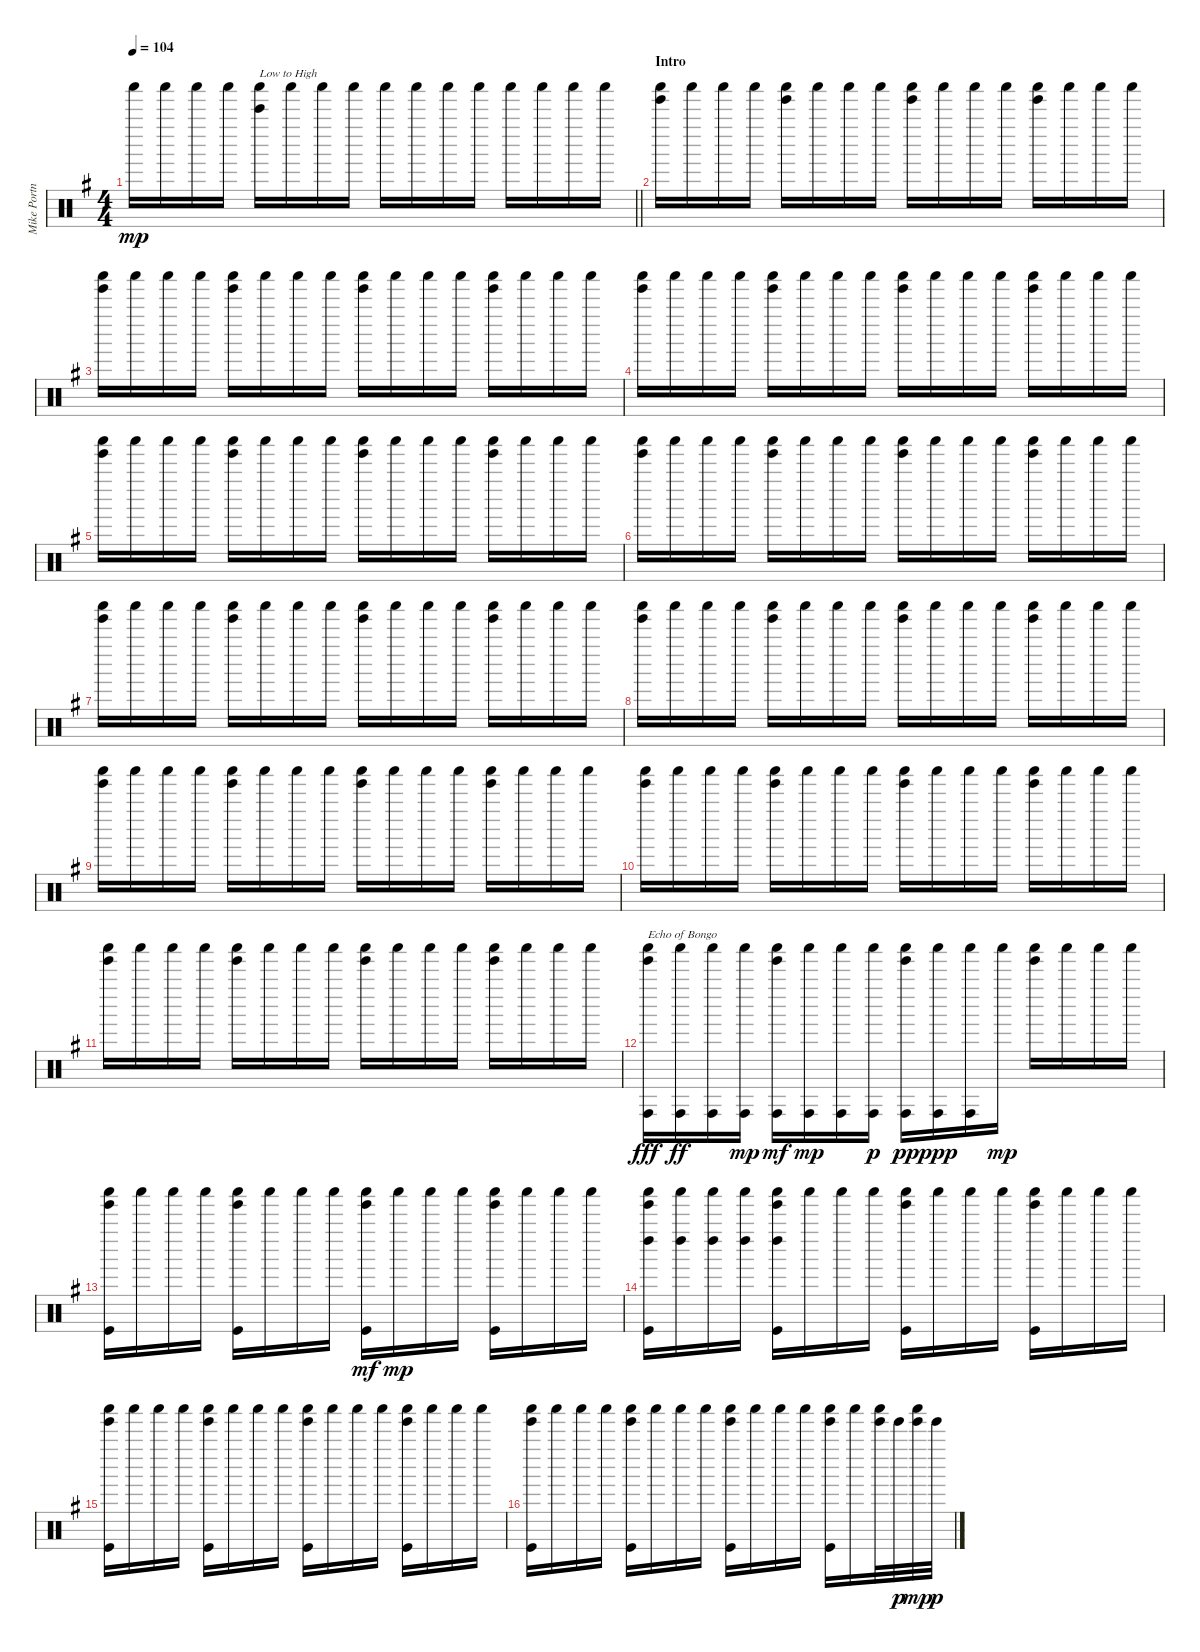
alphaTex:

\track ("Mike Portnoy" "Mike Portn") {instrument percussion}
\staff {score}
\articulation defaults
\ts (4 4)
\tempo 104
\clef neutral
\barLineRight lightlight
\ks eminor "Shaker (hit)".16{dy mp volume 1} "Shaker (hit)".16{volume 13} "Shaker (hit)".16 "Shaker (hit)".16
("Bell Tree (hit)" "Shaker (hit)").16{txt "Low to High"} "Shaker (hit)".16 "Shaker (hit)".16 "Shaker (hit)".16 "Shaker (hit)".16 "Shaker (hit)".16 "Shaker (hit)".16 "Shaker (hit)".16 "Shaker (hit)".16 "Shaker (hit)".16 "Shaker (hit)".16 "Shaker (hit)".16 |
\section ("" "Intro")
("Tinkle Bell (hit)" "Shaker (hit)").16 "Shaker (hit)".16 "Shaker (hit)".16 "Shaker (hit)".16 ("Tinkle Bell (hit)" "Shaker (hit)").16 "Shaker (hit)".16 "Shaker (hit)".16 "Shaker (hit)".16 ("Tinkle Bell (hit)" "Shaker (hit)").16 "Shaker (hit)".16 "Shaker (hit)".16 "Shaker (hit)".16 ("Tinkle Bell (hit)" "Shaker (hit)").16 "Shaker (hit)".16 "Shaker (hit)".16 "Shaker (hit)".16 |
("Tinkle Bell (hit)" "Shaker (hit)").16 "Shaker (hit)".16 "Shaker (hit)".16 "Shaker (hit)".16 ("Tinkle Bell (hit)" "Shaker (hit)").16 "Shaker (hit)".16 "Shaker (hit)".16 "Shaker (hit)".16 ("Tinkle Bell (hit)" "Shaker (hit)").16 "Shaker (hit)".16 "Shaker (hit)".16 "Shaker (hit)".16 ("Tinkle Bell (hit)" "Shaker (hit)").16 "Shaker (hit)".16 "Shaker (hit)".16 "Shaker (hit)".16 |
("Tinkle Bell (hit)" "Shaker (hit)").16 "Shaker (hit)".16 "Shaker (hit)".16 "Shaker (hit)".16 ("Tinkle Bell (hit)" "Shaker (hit)").16 "Shaker (hit)".16 "Shaker (hit)".16 "Shaker (hit)".16 ("Tinkle Bell (hit)" "Shaker (hit)").16 "Shaker (hit)".16 "Shaker (hit)".16 "Shaker (hit)".16 ("Tinkle Bell (hit)" "Shaker (hit)").16 "Shaker (hit)".16 "Shaker (hit)".16 "Shaker (hit)".16 |
("Tinkle Bell (hit)" "Shaker (hit)").16 "Shaker (hit)".16 "Shaker (hit)".16 "Shaker (hit)".16 ("Tinkle Bell (hit)" "Shaker (hit)").16 "Shaker (hit)".16 "Shaker (hit)".16 "Shaker (hit)".16 ("Tinkle Bell (hit)" "Shaker (hit)").16 "Shaker (hit)".16 "Shaker (hit)".16 "Shaker (hit)".16 ("Tinkle Bell (hit)" "Shaker (hit)").16 "Shaker (hit)".16 "Shaker (hit)".16 "Shaker (hit)".16 |
("Tinkle Bell (hit)" "Shaker (hit)").16 "Shaker (hit)".16 "Shaker (hit)".16 "Shaker (hit)".16 ("Tinkle Bell (hit)" "Shaker (hit)").16 "Shaker (hit)".16 "Shaker (hit)".16 "Shaker (hit)".16 ("Tinkle Bell (hit)" "Shaker (hit)").16 "Shaker (hit)".16 "Shaker (hit)".16 "Shaker (hit)".16 ("Tinkle Bell (hit)" "Shaker (hit)").16 "Shaker (hit)".16 "Shaker (hit)".16 "Shaker (hit)".16 |
("Tinkle Bell (hit)" "Shaker (hit)").16 "Shaker (hit)".16 "Shaker (hit)".16 "Shaker (hit)".16 ("Tinkle Bell (hit)" "Shaker (hit)").16 "Shaker (hit)".16 "Shaker (hit)".16 "Shaker (hit)".16 ("Tinkle Bell (hit)" "Shaker (hit)").16 "Shaker (hit)".16 "Shaker (hit)".16 "Shaker (hit)".16 ("Tinkle Bell (hit)" "Shaker (hit)").16 "Shaker (hit)".16 "Shaker (hit)".16 "Shaker (hit)".16 |
("Tinkle Bell (hit)" "Shaker (hit)").16 "Shaker (hit)".16 "Shaker (hit)".16 "Shaker (hit)".16 ("Tinkle Bell (hit)" "Shaker (hit)").16 "Shaker (hit)".16 "Shaker (hit)".16 "Shaker (hit)".16 ("Tinkle Bell (hit)" "Shaker (hit)").16 "Shaker (hit)".16 "Shaker (hit)".16 "Shaker (hit)".16 ("Tinkle Bell (hit)" "Shaker (hit)").16 "Shaker (hit)".16 "Shaker (hit)".16 "Shaker (hit)".16 |
("Tinkle Bell (hit)" "Shaker (hit)").16 "Shaker (hit)".16 "Shaker (hit)".16 "Shaker (hit)".16 ("Tinkle Bell (hit)" "Shaker (hit)").16 "Shaker (hit)".16 "Shaker (hit)".16 "Shaker (hit)".16 ("Tinkle Bell (hit)" "Shaker (hit)").16 "Shaker (hit)".16 "Shaker (hit)".16 "Shaker (hit)".16 ("Tinkle Bell (hit)" "Shaker (hit)").16 "Shaker (hit)".16 "Shaker (hit)".16 "Shaker (hit)".16 |
("Tinkle Bell (hit)" "Shaker (hit)").16 "Shaker (hit)".16 "Shaker (hit)".16 "Shaker (hit)".16 ("Tinkle Bell (hit)" "Shaker (hit)").16 "Shaker (hit)".16 "Shaker (hit)".16 "Shaker (hit)".16 ("Tinkle Bell (hit)" "Shaker (hit)").16 "Shaker (hit)".16 "Shaker (hit)".16 "Shaker (hit)".16 ("Tinkle Bell (hit)" "Shaker (hit)").16 "Shaker (hit)".16 "Shaker (hit)".16 "Shaker (hit)".16 |
("Tinkle Bell (hit)" "Shaker (hit)").16 "Shaker (hit)".16 "Shaker (hit)".16 "Shaker (hit)".16 ("Tinkle Bell (hit)" "Shaker (hit)").16 "Shaker (hit)".16 "Shaker (hit)".16 "Shaker (hit)".16 ("Tinkle Bell (hit)" "Shaker (hit)").16 "Shaker (hit)".16 "Shaker (hit)".16 "Shaker (hit)".16 ("Tinkle Bell (hit)" "Shaker (hit)").16 "Shaker (hit)".16 "Shaker (hit)".16 "Shaker (hit)".16 |
("Tinkle Bell (hit)" "Shaker (hit)" "Conga high (hit)").16{txt "Echo of Bongo" dy fff} ("Shaker (hit)" "Conga high (hit)").16{dy ff} ("Shaker (hit)" "Conga high (hit)").16 ("Shaker (hit)" "Conga high (hit)").16{dy mp} ("Tinkle Bell (hit)" "Shaker (hit)" "Conga high (hit)").16{dy mf} ("Shaker (hit)" "Conga high (hit)").16{dy mp} ("Shaker (hit)" "Conga high (hit)").16 ("Shaker (hit)" "Conga high (hit)").16{dy p} ("Tinkle Bell (hit)" "Shaker (hit)" "Conga high (hit)").16{dy pp} ("Shaker (hit)" "Conga high (hit)").16{dy ppp} ("Shaker (hit)" "Conga high (hit)").16 "Shaker (hit)".16{dy mp} ("Tinkle Bell (hit)" "Shaker (hit)").16 "Shaker (hit)".16 "Shaker (hit)".16 "Shaker (hit)".16 |
("Tinkle Bell (hit)" "Shaker (hit)" "Kick (hit)").16 "Shaker (hit)".16 "Shaker (hit)".16 "Shaker (hit)".16 ("Tinkle Bell (hit)" "Shaker (hit)" "Kick (hit)").16 "Shaker (hit)".16 "Shaker (hit)".16 "Shaker (hit)".16 ("Tinkle Bell (hit)" "Shaker (hit)" "Kick (hit)").16{dy mf} "Shaker (hit)".16{dy mp} "Shaker (hit)".16 "Shaker (hit)".16 ("Tinkle Bell (hit)" "Shaker (hit)" "Kick (hit)").16 "Shaker (hit)".16 "Shaker (hit)".16 "Shaker (hit)".16 |
("Tinkle Bell (hit)" "Left Maraca (hit)" "Shaker (hit)" "Kick (hit)").16 ("Left Maraca (hit)" "Shaker (hit)").16 ("Left Maraca (hit)" "Shaker (hit)").16 ("Left Maraca (hit)" "Shaker (hit)").16 ("Tinkle Bell (hit)" "Left Maraca (hit)" "Shaker (hit)" "Kick (hit)").16 "Shaker (hit)".16 "Shaker (hit)".16 "Shaker (hit)".16 ("Tinkle Bell (hit)" "Shaker (hit)" "Kick (hit)").16 "Shaker (hit)".16 "Shaker (hit)".16 "Shaker (hit)".16 ("Tinkle Bell (hit)" "Shaker (hit)" "Kick (hit)").16 "Shaker (hit)".16 "Shaker (hit)".16 "Shaker (hit)".16 |
("Tinkle Bell (hit)" "Shaker (hit)" "Kick (hit)").16 "Shaker (hit)".16 "Shaker (hit)".16 "Shaker (hit)".16 ("Tinkle Bell (hit)" "Shaker (hit)" "Kick (hit)").16 "Shaker (hit)".16 "Shaker (hit)".16 "Shaker (hit)".16 ("Tinkle Bell (hit)" "Shaker (hit)" "Kick (hit)").16 "Shaker (hit)".16 "Shaker (hit)".16 "Shaker (hit)".16 ("Tinkle Bell (hit)" "Shaker (hit)" "Kick (hit)").16 "Shaker (hit)".16 "Shaker (hit)".16 "Shaker (hit)".16 |
("Tinkle Bell (hit)" "Shaker (hit)" "Kick (hit)").16 "Shaker (hit)".16 "Shaker (hit)".16 "Shaker (hit)".16 ("Tinkle Bell (hit)" "Shaker (hit)" "Kick (hit)").16 "Shaker (hit)".16 "Shaker (hit)".16 "Shaker (hit)".16 ("Tinkle Bell (hit)" "Shaker (hit)" "Kick (hit)").16 "Shaker (hit)".16 "Shaker (hit)".16 "Shaker (hit)".16 ("Tinkle Bell (hit)" "Shaker (hit)" "Kick (hit)").16 "Shaker (hit)".16 ("Tinkle Bell (hit)" "Shaker (hit)").32 "Tinkle Bell (hit)".32{dy p} ("Tinkle Bell (hit)" "Shaker (hit)").32{dy mp} "Tinkle Bell (hit)".32{dy p}
